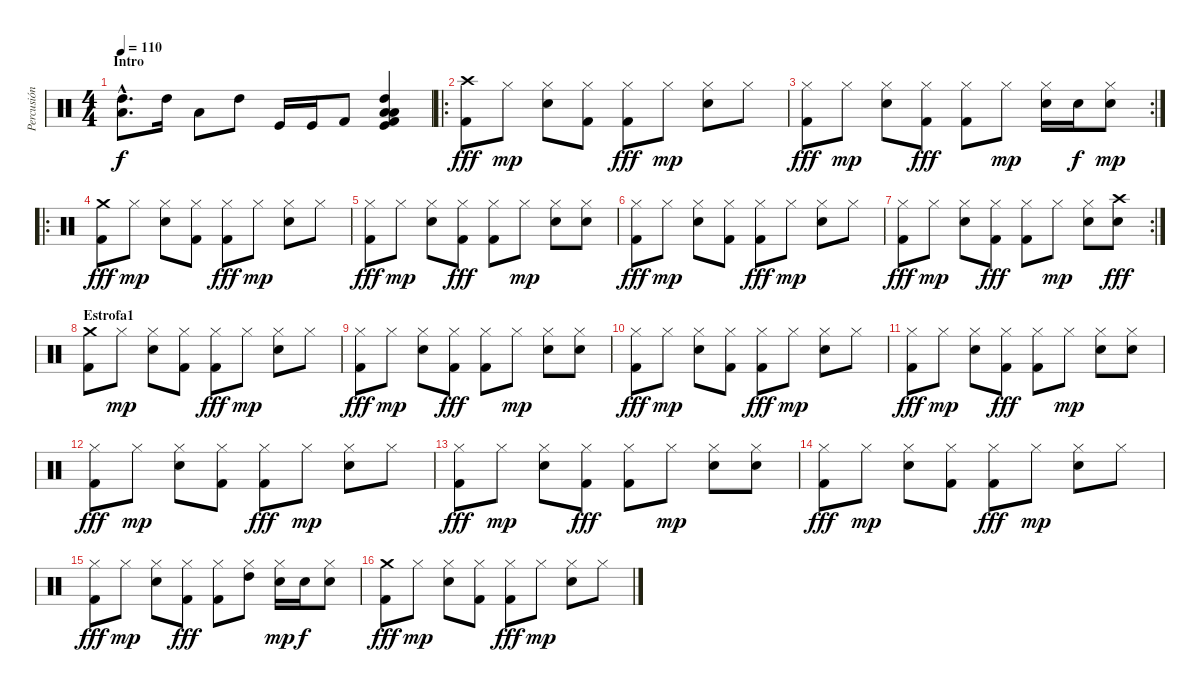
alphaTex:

\track ("Percusión" "Percusión") {instrument percussion}
\staff {score}
\articulation defaults
\ts (4 4)
\section ("" "Intro")
\tempo 110
\clef neutral
\ks c
("Low Tom (hit)"{hac} "High Tom (hit)"{hac}).8{d bd 120 dy f balance 10} "High Tom (hit)".16 "Low Tom (hit)".8 "High Tom (hit)".8 "Kick (hit)".16{balance 6} "Kick (hit)".16 "Kick (hit) 2".8 ("High Tom (hit)" "Kick (hit)" "Low Tom (hit)" "Kick (hit) 2" "Low Tom (hit)").4{bd 30} |
\ro
("Crash high (hit)" "Kick (hit) 2").8{dy fff volume 11 balance 8} "Hi-Hat (closed)".8{dy mp} ("Hi-Hat (closed)" "Snare (hit) 2").8 ("Hi-Hat (closed)" "Kick (hit) 2").8 ("Hi-Hat (closed)" "Kick (hit) 2").8{dy fff} "Hi-Hat (closed)".8{dy mp} ("Hi-Hat (closed)" "Snare (hit) 2").8 "Hi-Hat (closed)".8 |
\rc 2
("Hi-Hat (closed)" "Kick (hit) 2").8{dy fff} "Hi-Hat (closed)".8{dy mp} ("Hi-Hat (closed)" "Snare (hit) 2").8 ("Hi-Hat (closed)" "Kick (hit) 2").8{dy fff} ("Hi-Hat (closed)" "Kick (hit) 2").8 "Hi-Hat (closed)".8{dy mp} ("Hi-Hat (closed)" "Snare (hit) 2").16 "Snare (hit) 2".16{dy f} ("Hi-Hat (closed)" "Snare (hit) 2").8{dy mp} |
\ro
("Crash medium (hit)" "Kick (hit) 2").8{dy fff} "Hi-Hat (closed)".8{dy mp} ("Hi-Hat (closed)" "Snare (hit) 2").8 ("Hi-Hat (closed)" "Kick (hit) 2").8 ("Hi-Hat (closed)" "Kick (hit) 2").8{dy fff} "Hi-Hat (closed)".8{dy mp} ("Hi-Hat (closed)" "Snare (hit) 2").8 "Hi-Hat (closed)".8 |
("Hi-Hat (closed)" "Kick (hit) 2").8{dy fff} "Hi-Hat (closed)".8{dy mp} ("Hi-Hat (closed)" "Snare (hit) 2").8 ("Hi-Hat (closed)" "Kick (hit) 2").8{dy fff} ("Hi-Hat (closed)" "Kick (hit) 2").8 "Hi-Hat (closed)".8{dy mp} ("Hi-Hat (closed)" "Snare (hit) 2").8 ("Hi-Hat (closed)" "Snare (hit) 2").8 |
("Hi-Hat (closed)" "Kick (hit) 2").8{dy fff} "Hi-Hat (closed)".8{dy mp} ("Hi-Hat (closed)" "Snare (hit) 2").8 ("Hi-Hat (closed)" "Kick (hit) 2").8 ("Hi-Hat (closed)" "Kick (hit) 2").8{dy fff} "Hi-Hat (closed)".8{dy mp} ("Hi-Hat (closed)" "Snare (hit) 2").8 "Hi-Hat (closed)".8 |
\rc 2
("Hi-Hat (closed)" "Kick (hit) 2").8{dy fff} "Hi-Hat (closed)".8{dy mp} ("Hi-Hat (closed)" "Snare (hit) 2").8 ("Hi-Hat (closed)" "Kick (hit) 2").8{dy fff} ("Hi-Hat (closed)" "Kick (hit) 2").8 "Hi-Hat (closed)".8{dy mp} ("Hi-Hat (closed)" "Snare (hit) 2").8 ("Crash high (hit)" "Snare (hit) 2").8{dy fff} |
\section ("" "Estrofa1")
("Crash medium (hit)" "Kick (hit) 2").8 "Hi-Hat (closed)".8{dy mp} ("Hi-Hat (closed)" "Snare (hit) 2").8 ("Hi-Hat (closed)" "Kick (hit) 2").8 ("Hi-Hat (closed)" "Kick (hit) 2").8{dy fff} "Hi-Hat (closed)".8{dy mp} ("Hi-Hat (closed)" "Snare (hit) 2").8 "Hi-Hat (closed)".8 |
("Hi-Hat (closed)" "Kick (hit) 2").8{dy fff} "Hi-Hat (closed)".8{dy mp} ("Hi-Hat (closed)" "Snare (hit) 2").8 ("Hi-Hat (closed)" "Kick (hit) 2").8{dy fff} ("Hi-Hat (closed)" "Kick (hit) 2").8 "Hi-Hat (closed)".8{dy mp} ("Hi-Hat (closed)" "Snare (hit) 2").8 ("Hi-Hat (closed)" "Snare (hit) 2").8 |
("Hi-Hat (closed)" "Kick (hit) 2").8{dy fff} "Hi-Hat (closed)".8{dy mp} ("Hi-Hat (closed)" "Snare (hit) 2").8 ("Hi-Hat (closed)" "Kick (hit) 2").8 ("Hi-Hat (closed)" "Kick (hit) 2").8{dy fff} "Hi-Hat (closed)".8{dy mp} ("Hi-Hat (closed)" "Snare (hit) 2").8 "Hi-Hat (closed)".8 |
("Hi-Hat (closed)" "Kick (hit) 2").8{dy fff} "Hi-Hat (closed)".8{dy mp} ("Hi-Hat (closed)" "Snare (hit) 2").8 ("Hi-Hat (closed)" "Kick (hit) 2").8{dy fff} ("Hi-Hat (closed)" "Kick (hit) 2").8 "Hi-Hat (closed)".8{dy mp} ("Hi-Hat (closed)" "Snare (hit) 2").8 ("Hi-Hat (closed)" "Snare (hit) 2").8 |
("Hi-Hat (closed)" "Kick (hit) 2").8{dy fff} "Hi-Hat (closed)".8{dy mp} ("Hi-Hat (closed)" "Snare (hit) 2").8 ("Hi-Hat (closed)" "Kick (hit) 2").8 ("Hi-Hat (closed)" "Kick (hit) 2").8{dy fff} "Hi-Hat (closed)".8{dy mp} ("Hi-Hat (closed)" "Snare (hit) 2").8 "Hi-Hat (closed)".8 |
("Hi-Hat (closed)" "Kick (hit) 2").8{dy fff} "Hi-Hat (closed)".8{dy mp} ("Hi-Hat (closed)" "Snare (hit) 2").8 ("Hi-Hat (closed)" "Kick (hit) 2").8{dy fff} ("Hi-Hat (closed)" "Kick (hit) 2").8 "Hi-Hat (closed)".8{dy mp} ("Hi-Hat (closed)" "Snare (hit) 2").8 ("Hi-Hat (closed)" "Snare (hit) 2").8 |
("Hi-Hat (closed)" "Kick (hit) 2").8{dy fff} "Hi-Hat (closed)".8{dy mp} ("Hi-Hat (closed)" "Snare (hit) 2").8 ("Hi-Hat (closed)" "Kick (hit) 2").8 ("Hi-Hat (closed)" "Kick (hit) 2").8{dy fff} "Hi-Hat (closed)".8{dy mp} ("Hi-Hat (closed)" "Snare (hit) 2").8 "Hi-Hat (closed)".8 |
("Hi-Hat (closed)" "Kick (hit) 2").8{dy fff} "Hi-Hat (closed)".8{dy mp} ("Hi-Hat (closed)" "Snare (hit) 2").8 ("Hi-Hat (closed)" "Kick (hit) 2").8{dy fff} ("Hi-Hat (closed)" "Kick (hit) 2").8 ("Hi-Hat (closed)" "High Tom (hit)").8 ("Hi-Hat (closed)" "Snare (hit) 2").16{dy mp} "Snare (hit) 2".16{dy f} ("Hi-Hat (closed)" "Snare (hit) 2").8 |
("Crash medium (hit)" "Kick (hit) 2").8{dy fff} "Hi-Hat (closed)".8{dy mp} ("Hi-Hat (closed)" "Snare (hit) 2").8 ("Hi-Hat (closed)" "Kick (hit) 2").8 ("Hi-Hat (closed)" "Kick (hit) 2").8{dy fff} "Hi-Hat (closed)".8{dy mp} ("Hi-Hat (closed)" "Snare (hit) 2").8 "Hi-Hat (closed)".8
